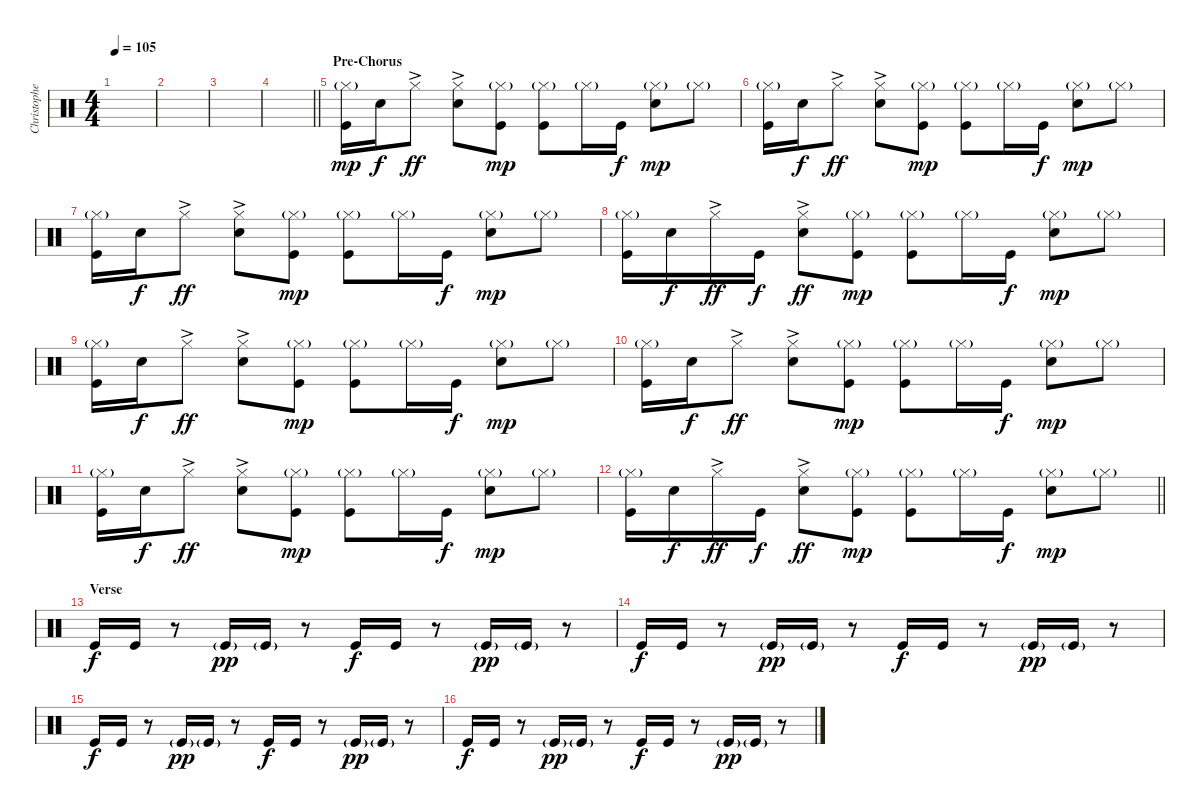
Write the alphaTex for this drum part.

\track ("Christopher - Drums" "Christophe") {mute instrument percussion}
\staff {score}
\articulation defaults
\ts (4 4)
\tempo 105
\clef neutral
\ks c
|
|
|
\barLineRight lightlight
|
\section ("" "Pre-Chorus")
("Hi-Hat (closed)"{g} "Kick (hit)").16{dy mp} "Snare (hit) 2".16{dy f} "Hi-Hat (closed)"{ac}.8{dy ff} ("Hi-Hat (closed)"{ac} "Snare (hit) 2").8 ("Hi-Hat (closed)"{g} "Kick (hit)").8{dy mp} ("Hi-Hat (closed)"{g} "Kick (hit)").8 "Hi-Hat (closed)"{g}.16 "Kick (hit)".16{dy f} ("Hi-Hat (closed)"{g} "Snare (hit) 2").8{dy mp} "Hi-Hat (closed)"{g}.8 |
("Hi-Hat (closed)"{g} "Kick (hit)").16 "Snare (hit) 2".16{dy f} "Hi-Hat (closed)"{ac}.8{dy ff} ("Hi-Hat (closed)"{ac} "Snare (hit) 2").8 ("Hi-Hat (closed)"{g} "Kick (hit)").8{dy mp} ("Hi-Hat (closed)"{g} "Kick (hit)").8 "Hi-Hat (closed)"{g}.16 "Kick (hit)".16{dy f} ("Hi-Hat (closed)"{g} "Snare (hit) 2").8{dy mp} "Hi-Hat (closed)"{g}.8 |
("Hi-Hat (closed)"{g} "Kick (hit)").16 "Snare (hit) 2".16{dy f} "Hi-Hat (closed)"{ac}.8{dy ff} ("Hi-Hat (closed)"{ac} "Snare (hit) 2").8 ("Hi-Hat (closed)"{g} "Kick (hit)").8{dy mp} ("Hi-Hat (closed)"{g} "Kick (hit)").8 "Hi-Hat (closed)"{g}.16 "Kick (hit)".16{dy f} ("Hi-Hat (closed)"{g} "Snare (hit) 2").8{dy mp} "Hi-Hat (closed)"{g}.8 |
("Hi-Hat (closed)"{g} "Kick (hit)").16 "Snare (hit) 2".16{dy f} "Hi-Hat (closed)"{ac}.16{dy ff} "Kick (hit)".16{dy f} ("Hi-Hat (closed)"{ac} "Snare (hit) 2").8{dy ff} ("Hi-Hat (closed)"{g} "Kick (hit)").8{dy mp} ("Hi-Hat (closed)"{g} "Kick (hit)").8 "Hi-Hat (closed)"{g}.16 "Kick (hit)".16{dy f} ("Hi-Hat (closed)"{g} "Snare (hit) 2").8{dy mp} "Hi-Hat (closed)"{g}.8 |
("Hi-Hat (closed)"{g} "Kick (hit)").16 "Snare (hit) 2".16{dy f} "Hi-Hat (closed)"{ac}.8{dy ff} ("Hi-Hat (closed)"{ac} "Snare (hit) 2").8 ("Hi-Hat (closed)"{g} "Kick (hit)").8{dy mp} ("Hi-Hat (closed)"{g} "Kick (hit)").8 "Hi-Hat (closed)"{g}.16 "Kick (hit)".16{dy f} ("Hi-Hat (closed)"{g} "Snare (hit) 2").8{dy mp} "Hi-Hat (closed)"{g}.8 |
("Hi-Hat (closed)"{g} "Kick (hit)").16 "Snare (hit) 2".16{dy f} "Hi-Hat (closed)"{ac}.8{dy ff} ("Hi-Hat (closed)"{ac} "Snare (hit) 2").8 ("Hi-Hat (closed)"{g} "Kick (hit)").8{dy mp} ("Hi-Hat (closed)"{g} "Kick (hit)").8 "Hi-Hat (closed)"{g}.16 "Kick (hit)".16{dy f} ("Hi-Hat (closed)"{g} "Snare (hit) 2").8{dy mp} "Hi-Hat (closed)"{g}.8 |
("Hi-Hat (closed)"{g} "Kick (hit)").16 "Snare (hit) 2".16{dy f} "Hi-Hat (closed)"{ac}.8{dy ff} ("Hi-Hat (closed)"{ac} "Snare (hit) 2").8 ("Hi-Hat (closed)"{g} "Kick (hit)").8{dy mp} ("Hi-Hat (closed)"{g} "Kick (hit)").8 "Hi-Hat (closed)"{g}.16 "Kick (hit)".16{dy f} ("Hi-Hat (closed)"{g} "Snare (hit) 2").8{dy mp} "Hi-Hat (closed)"{g}.8 |
\barLineRight lightlight
("Hi-Hat (closed)"{g} "Kick (hit)").16 "Snare (hit) 2".16{dy f} "Hi-Hat (closed)"{ac}.16{dy ff} "Kick (hit)".16{dy f} ("Hi-Hat (closed)"{ac} "Snare (hit) 2").8{dy ff} ("Hi-Hat (closed)"{g} "Kick (hit)").8{dy mp} ("Hi-Hat (closed)"{g} "Kick (hit)").8 "Hi-Hat (closed)"{g}.16 "Kick (hit)".16{dy f} ("Hi-Hat (closed)"{g} "Snare (hit) 2").8{dy mp} "Hi-Hat (closed)"{g}.8 |
\section ("" "Verse")
"Kick (hit)".16{dy f} "Kick (hit)".16 r.8 "Kick (hit)"{g}.16{dy pp} "Kick (hit)"{g}.16 r.8 "Kick (hit)".16{dy f} "Kick (hit)".16 r.8 "Kick (hit)"{g}.16{dy pp} "Kick (hit)"{g}.16 r.8 |
"Kick (hit)".16{dy f} "Kick (hit)".16 r.8 "Kick (hit)"{g}.16{dy pp} "Kick (hit)"{g}.16 r.8 "Kick (hit)".16{dy f} "Kick (hit)".16 r.8 "Kick (hit)"{g}.16{dy pp} "Kick (hit)"{g}.16 r.8 |
"Kick (hit)".16{dy f} "Kick (hit)".16 r.8 "Kick (hit)"{g}.16{dy pp} "Kick (hit)"{g}.16 r.8 "Kick (hit)".16{dy f} "Kick (hit)".16 r.8 "Kick (hit)"{g}.16{dy pp} "Kick (hit)"{g}.16 r.8 |
"Kick (hit)".16{dy f} "Kick (hit)".16 r.8 "Kick (hit)"{g}.16{dy pp} "Kick (hit)"{g}.16 r.8 "Kick (hit)".16{dy f} "Kick (hit)".16 r.8 "Kick (hit)"{g}.16{dy pp} "Kick (hit)"{g}.16 r.8
